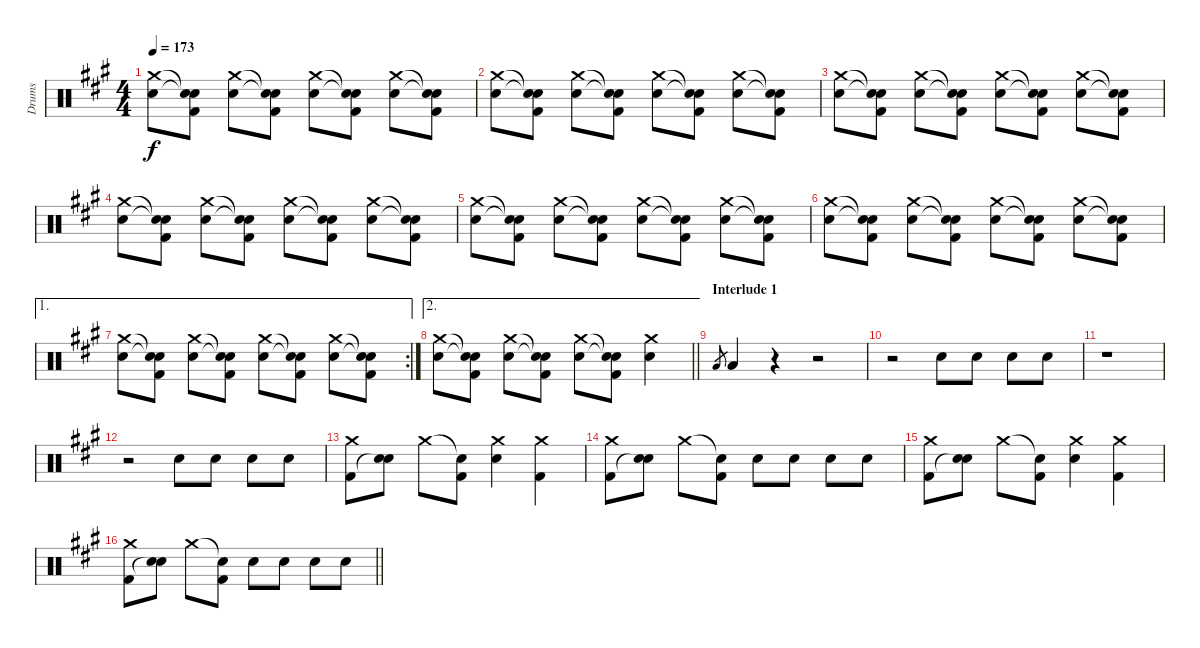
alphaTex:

\track ("Drums" "Drums") {instrument percussion}
\staff {score}
\articulation defaults
\ts (4 4)
\tempo 173
\clef neutral
\ks f#minor
("Crash medium (hit)" "Electric Snare (hit)").8{dy f} ("Snare (hit)"{t} "Snare (hit)"{t} "Kick (hit) 2").8 ("Crash medium (hit)" "Electric Snare (hit)").8 ("Snare (hit)"{t} "Snare (hit)"{t} "Kick (hit) 2").8 ("Crash medium (hit)" "Electric Snare (hit)").8 ("Snare (hit)"{t} "Snare (hit)"{t} "Kick (hit) 2").8 ("Crash medium (hit)" "Electric Snare (hit)").8 ("Snare (hit)"{t} "Snare (hit)"{t} "Kick (hit) 2").8 |
("Crash medium (hit)" "Electric Snare (hit)").8 ("Snare (hit)"{t} "Snare (hit)"{t} "Kick (hit) 2").8 ("Crash medium (hit)" "Electric Snare (hit)").8 ("Snare (hit)"{t} "Snare (hit)"{t} "Kick (hit) 2").8 ("Crash medium (hit)" "Electric Snare (hit)").8 ("Snare (hit)"{t} "Snare (hit)"{t} "Kick (hit) 2").8 ("Crash medium (hit)" "Electric Snare (hit)").8 ("Snare (hit)"{t} "Snare (hit)"{t} "Kick (hit) 2").8 |
("Crash medium (hit)" "Electric Snare (hit)").8 ("Snare (hit)"{t} "Snare (hit)"{t} "Kick (hit) 2").8 ("Crash medium (hit)" "Electric Snare (hit)").8 ("Snare (hit)"{t} "Snare (hit)"{t} "Kick (hit) 2").8 ("Crash medium (hit)" "Electric Snare (hit)").8 ("Snare (hit)"{t} "Snare (hit)"{t} "Kick (hit) 2").8 ("Crash medium (hit)" "Electric Snare (hit)").8 ("Snare (hit)"{t} "Snare (hit)"{t} "Kick (hit) 2").8 |
("Crash medium (hit)" "Electric Snare (hit)").8 ("Snare (hit)"{t} "Snare (hit)"{t} "Kick (hit) 2").8 ("Crash medium (hit)" "Electric Snare (hit)").8 ("Snare (hit)"{t} "Snare (hit)"{t} "Kick (hit) 2").8 ("Crash medium (hit)" "Electric Snare (hit)").8 ("Snare (hit)"{t} "Snare (hit)"{t} "Kick (hit) 2").8 ("Crash medium (hit)" "Electric Snare (hit)").8 ("Snare (hit)"{t} "Snare (hit)"{t} "Kick (hit) 2").8 |
("Crash medium (hit)" "Electric Snare (hit)").8 ("Snare (hit)"{t} "Snare (hit)"{t} "Kick (hit) 2").8 ("Crash medium (hit)" "Electric Snare (hit)").8 ("Snare (hit)"{t} "Snare (hit)"{t} "Kick (hit) 2").8 ("Crash medium (hit)" "Electric Snare (hit)").8 ("Snare (hit)"{t} "Snare (hit)"{t} "Kick (hit) 2").8 ("Crash medium (hit)" "Electric Snare (hit)").8 ("Snare (hit)"{t} "Snare (hit)"{t} "Kick (hit) 2").8 |
("Crash medium (hit)" "Electric Snare (hit)").8 ("Snare (hit)"{t} "Snare (hit)"{t} "Kick (hit) 2").8 ("Crash medium (hit)" "Electric Snare (hit)").8 ("Snare (hit)"{t} "Snare (hit)"{t} "Kick (hit) 2").8 ("Crash medium (hit)" "Electric Snare (hit)").8 ("Snare (hit)"{t} "Snare (hit)"{t} "Kick (hit) 2").8 ("Crash medium (hit)" "Electric Snare (hit)").8 ("Snare (hit)"{t} "Snare (hit)"{t} "Kick (hit) 2").8 |
\ae 1
\rc 2
("Crash medium (hit)" "Electric Snare (hit)").8 ("Snare (hit)"{t} "Snare (hit)"{t} "Kick (hit) 2").8 ("Crash medium (hit)" "Electric Snare (hit)").8 ("Snare (hit)"{t} "Snare (hit)"{t} "Kick (hit) 2").8 ("Crash medium (hit)" "Electric Snare (hit)").8 ("Snare (hit)"{t} "Snare (hit)"{t} "Kick (hit) 2").8 ("Crash medium (hit)" "Electric Snare (hit)").8 ("Snare (hit)"{t} "Snare (hit)"{t} "Kick (hit) 2").8 |
\ae 2
\barLineRight lightlight
("Crash medium (hit)" "Electric Snare (hit)").8 ("Snare (hit)"{t} "Snare (hit)"{t} "Kick (hit) 2").8 ("Crash medium (hit)" "Electric Snare (hit)").8 ("Snare (hit)"{t} "Snare (hit)"{t} "Kick (hit) 2").8 ("Crash medium (hit)" "Electric Snare (hit)").8 ("Snare (hit)"{t} "Snare (hit)"{t} "Kick (hit) 2").8 ("Crash medium (hit)" "Electric Snare (hit)").4 |
\section ("" "Interlude 1")
"Low Floor Tom (hit)".8{gr} "Low Floor Tom (hit)".4 r.4 r.2 |
r.2 "Electric Snare (hit)".8 "Electric Snare (hit)".8 "Electric Snare (hit)".8 "Electric Snare (hit)".8 |
r.1 |
r.2 "Electric Snare (hit)".8 "Electric Snare (hit)".8 "Electric Snare (hit)".8 "Electric Snare (hit)".8 |
("Crash medium (hit)" "Kick (hit) 2").8 ("Electric Snare (hit)" "Snare (hit)"{t}).8 "Crash medium (hit)".8 ("Snare (hit)"{t} "Kick (hit) 2").8 ("Crash medium (hit)" "Electric Snare (hit)").4 ("Crash medium (hit)" "Kick (hit) 2").4 |
("Crash medium (hit)" "Kick (hit) 2").8 ("Electric Snare (hit)" "Snare (hit)"{t}).8 "Crash medium (hit)".8 ("Snare (hit)"{t} "Kick (hit) 2").8 "Electric Snare (hit)".8 "Electric Snare (hit)".8 "Electric Snare (hit)".8 "Electric Snare (hit)".8 |
("Crash medium (hit)" "Kick (hit) 2").8 ("Electric Snare (hit)" "Snare (hit)"{t}).8 "Crash medium (hit)".8 ("Snare (hit)"{t} "Kick (hit) 2").8 ("Crash medium (hit)" "Electric Snare (hit)").4 ("Crash medium (hit)" "Kick (hit) 2").4 |
\barLineRight lightlight
("Crash medium (hit)" "Kick (hit) 2").8 ("Electric Snare (hit)" "Snare (hit)"{t}).8 "Crash medium (hit)".8 ("Snare (hit)"{t} "Kick (hit) 2").8 "Electric Snare (hit)".8 "Electric Snare (hit)".8 "Electric Snare (hit)".8 "Electric Snare (hit)".8
